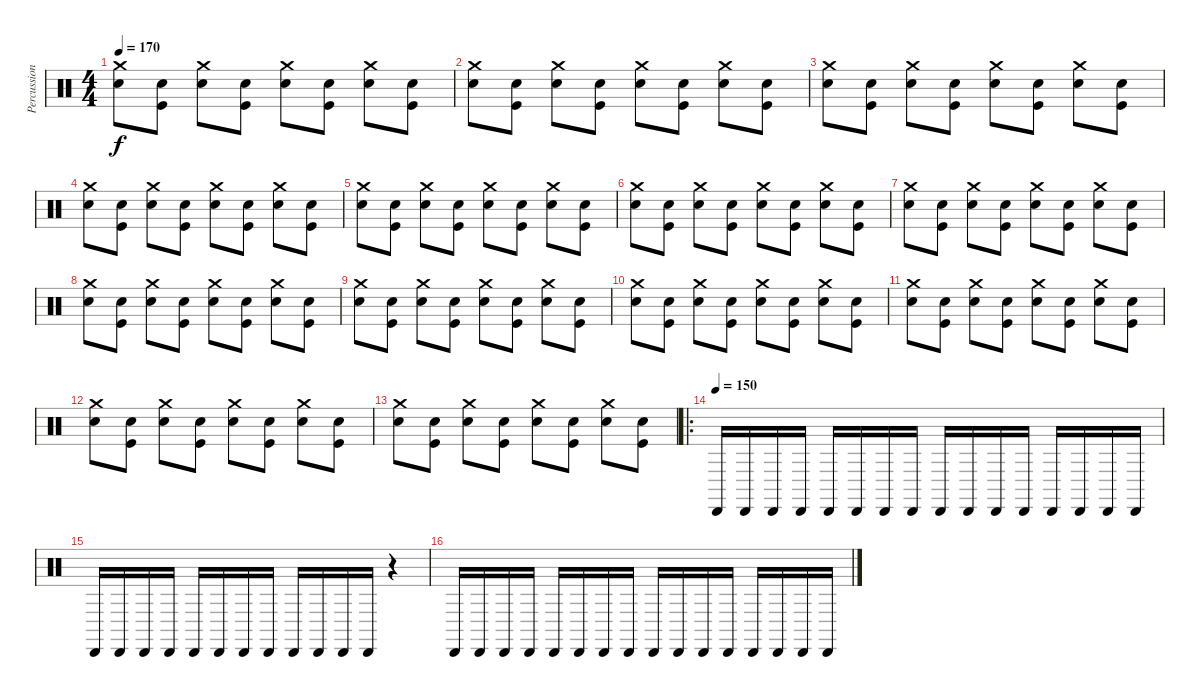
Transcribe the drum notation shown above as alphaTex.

\track ("Percussion" "Percussion") {instrument percussion}
\staff {score}
\articulation defaults
\ts (4 4)
\tempo 170
\clef neutral
\ks c
("Electric Snare (hit)" "Crash medium (hit)").8{dy f} ("Electric Snare (hit)" "Kick (hit)").8 ("Electric Snare (hit)" "Crash medium (hit)").8 ("Electric Snare (hit)" "Kick (hit)").8 ("Electric Snare (hit)" "Crash medium (hit)").8 ("Electric Snare (hit)" "Kick (hit)").8 ("Electric Snare (hit)" "Crash medium (hit)").8 ("Electric Snare (hit)" "Kick (hit)").8 |
("Electric Snare (hit)" "Crash medium (hit)").8 ("Electric Snare (hit)" "Kick (hit)").8 ("Electric Snare (hit)" "Crash medium (hit)").8 ("Electric Snare (hit)" "Kick (hit)").8 ("Electric Snare (hit)" "Crash medium (hit)").8 ("Electric Snare (hit)" "Kick (hit)").8 ("Electric Snare (hit)" "Crash medium (hit)").8 ("Electric Snare (hit)" "Kick (hit)").8 |
("Electric Snare (hit)" "Crash medium (hit)").8 ("Electric Snare (hit)" "Kick (hit)").8 ("Electric Snare (hit)" "Crash medium (hit)").8 ("Electric Snare (hit)" "Kick (hit)").8 ("Electric Snare (hit)" "Crash medium (hit)").8 ("Electric Snare (hit)" "Kick (hit)").8 ("Electric Snare (hit)" "Crash medium (hit)").8 ("Electric Snare (hit)" "Kick (hit)").8 |
("Electric Snare (hit)" "Crash medium (hit)").8 ("Electric Snare (hit)" "Kick (hit)").8 ("Electric Snare (hit)" "Crash medium (hit)").8 ("Electric Snare (hit)" "Kick (hit)").8 ("Electric Snare (hit)" "Crash medium (hit)").8 ("Electric Snare (hit)" "Kick (hit)").8 ("Electric Snare (hit)" "Crash medium (hit)").8 ("Electric Snare (hit)" "Kick (hit)").8 |
("Electric Snare (hit)" "Crash medium (hit)").8 ("Electric Snare (hit)" "Kick (hit)").8 ("Electric Snare (hit)" "Crash medium (hit)").8 ("Electric Snare (hit)" "Kick (hit)").8 ("Electric Snare (hit)" "Crash medium (hit)").8 ("Electric Snare (hit)" "Kick (hit)").8 ("Electric Snare (hit)" "Crash medium (hit)").8 ("Electric Snare (hit)" "Kick (hit)").8 |
("Electric Snare (hit)" "Crash medium (hit)").8 ("Electric Snare (hit)" "Kick (hit)").8 ("Electric Snare (hit)" "Crash medium (hit)").8 ("Electric Snare (hit)" "Kick (hit)").8 ("Electric Snare (hit)" "Crash medium (hit)").8 ("Electric Snare (hit)" "Kick (hit)").8 ("Electric Snare (hit)" "Crash medium (hit)").8 ("Electric Snare (hit)" "Kick (hit)").8 |
("Electric Snare (hit)" "Crash medium (hit)").8 ("Electric Snare (hit)" "Kick (hit)").8 ("Electric Snare (hit)" "Crash medium (hit)").8 ("Electric Snare (hit)" "Kick (hit)").8 ("Electric Snare (hit)" "Crash medium (hit)").8 ("Electric Snare (hit)" "Kick (hit)").8 ("Electric Snare (hit)" "Crash medium (hit)").8 ("Electric Snare (hit)" "Kick (hit)").8 |
("Electric Snare (hit)" "Crash medium (hit)").8 ("Electric Snare (hit)" "Kick (hit)").8 ("Electric Snare (hit)" "Crash medium (hit)").8 ("Electric Snare (hit)" "Kick (hit)").8 ("Electric Snare (hit)" "Crash medium (hit)").8 ("Electric Snare (hit)" "Kick (hit)").8 ("Electric Snare (hit)" "Crash medium (hit)").8 ("Electric Snare (hit)" "Kick (hit)").8 |
("Electric Snare (hit)" "Crash medium (hit)").8 ("Electric Snare (hit)" "Kick (hit)").8 ("Electric Snare (hit)" "Crash medium (hit)").8 ("Electric Snare (hit)" "Kick (hit)").8 ("Electric Snare (hit)" "Crash medium (hit)").8 ("Electric Snare (hit)" "Kick (hit)").8 ("Electric Snare (hit)" "Crash medium (hit)").8 ("Electric Snare (hit)" "Kick (hit)").8 |
("Electric Snare (hit)" "Crash medium (hit)").8 ("Electric Snare (hit)" "Kick (hit)").8 ("Electric Snare (hit)" "Crash medium (hit)").8 ("Electric Snare (hit)" "Kick (hit)").8 ("Electric Snare (hit)" "Crash medium (hit)").8 ("Electric Snare (hit)" "Kick (hit)").8 ("Electric Snare (hit)" "Crash medium (hit)").8 ("Electric Snare (hit)" "Kick (hit)").8 |
("Electric Snare (hit)" "Crash medium (hit)").8 ("Electric Snare (hit)" "Kick (hit)").8 ("Electric Snare (hit)" "Crash medium (hit)").8 ("Electric Snare (hit)" "Kick (hit)").8 ("Electric Snare (hit)" "Crash medium (hit)").8 ("Electric Snare (hit)" "Kick (hit)").8 ("Electric Snare (hit)" "Crash medium (hit)").8 ("Electric Snare (hit)" "Kick (hit)").8 |
("Electric Snare (hit)" "Crash medium (hit)").8 ("Electric Snare (hit)" "Kick (hit)").8 ("Electric Snare (hit)" "Crash medium (hit)").8 ("Electric Snare (hit)" "Kick (hit)").8 ("Electric Snare (hit)" "Crash medium (hit)").8 ("Electric Snare (hit)" "Kick (hit)").8 ("Electric Snare (hit)" "Crash medium (hit)").8 ("Electric Snare (hit)" "Kick (hit)").8 |
("Electric Snare (hit)" "Crash medium (hit)").8 ("Electric Snare (hit)" "Kick (hit)").8 ("Electric Snare (hit)" "Crash medium (hit)").8 ("Electric Snare (hit)" "Kick (hit)").8 ("Electric Snare (hit)" "Crash medium (hit)").8 ("Electric Snare (hit)" "Kick (hit)").8 ("Electric Snare (hit)" "Crash medium (hit)").8 ("Electric Snare (hit)" "Kick (hit)").8 |
\ro
\tempo (150)
"Cabasa (hit)".16 "Cabasa (hit)".16 "Cabasa (hit)".16 "Cabasa (hit)".16 "Cabasa (hit)".16 "Cabasa (hit)".16 "Cabasa (hit)".16 "Cabasa (hit)".16 "Cabasa (hit)".16 "Cabasa (hit)".16 "Cabasa (hit)".16 "Cabasa (hit)".16 "Cabasa (hit)".16 "Cabasa (hit)".16 "Cabasa (hit)".16 "Cabasa (hit)".16 |
"Cabasa (hit)".16 "Cabasa (hit)".16 "Cabasa (hit)".16 "Cabasa (hit)".16 "Cabasa (hit)".16 "Cabasa (hit)".16 "Cabasa (hit)".16 "Cabasa (hit)".16 "Cabasa (hit)".16 "Cabasa (hit)".16 "Cabasa (hit)".16 "Cabasa (hit)".16 r.4 |
"Cabasa (hit)".16 "Cabasa (hit)".16 "Cabasa (hit)".16 "Cabasa (hit)".16 "Cabasa (hit)".16 "Cabasa (hit)".16 "Cabasa (hit)".16 "Cabasa (hit)".16 "Cabasa (hit)".16 "Cabasa (hit)".16 "Cabasa (hit)".16 "Cabasa (hit)".16 "Cabasa (hit)".16 "Cabasa (hit)".16 "Cabasa (hit)".16 "Cabasa (hit)".16
